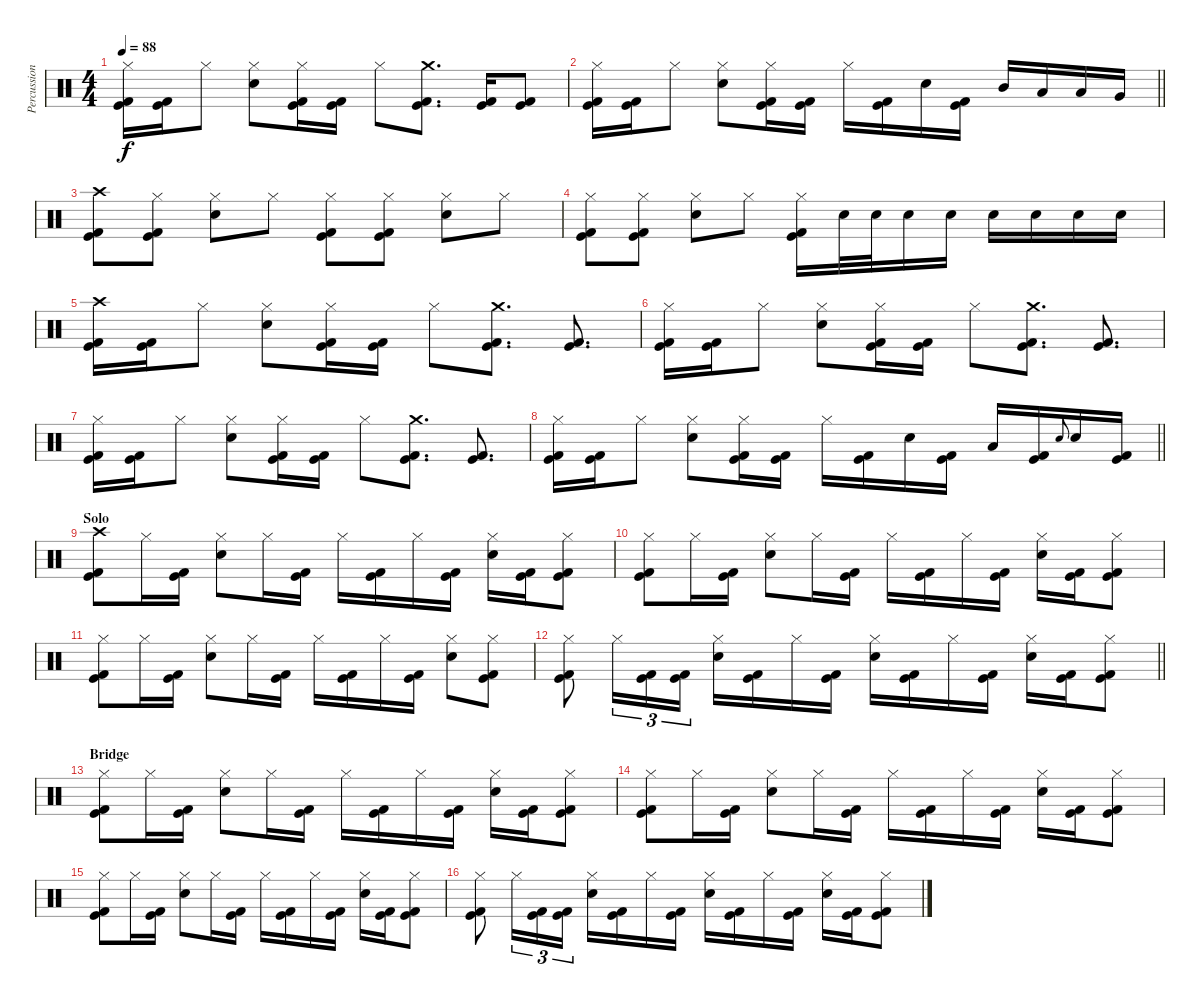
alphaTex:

\track ("Percussion" "Percussion") {instrument percussion}
\staff {score}
\articulation defaults
\ts (4 4)
\tempo 88
\clef neutral
\ks c
("Hi-Hat (closed)" "Kick (hit)" "Kick (hit) 2").16{dy f} ("Kick (hit)" "Kick (hit) 2").16 "Hi-Hat (closed)".8 ("Hi-Hat (closed)" "Electric Snare (hit)").8 ("Hi-Hat (closed)" "Kick (hit)" "Kick (hit) 2").16 ("Kick (hit)" "Kick (hit) 2").16 "Hi-Hat (closed)".8 ("Crash medium (hit)" "Kick (hit)" "Kick (hit) 2").8{d} ("Kick (hit)" "Kick (hit) 2").16 ("Kick (hit)" "Kick (hit) 2").8 |
\barLineRight lightlight
("Hi-Hat (closed)" "Kick (hit)" "Kick (hit) 2").16 ("Kick (hit)" "Kick (hit) 2").16 "Hi-Hat (closed)".8 ("Hi-Hat (closed)" "Electric Snare (hit)").8 ("Hi-Hat (closed)" "Kick (hit)" "Kick (hit) 2").16 ("Kick (hit)" "Kick (hit) 2").16 "Hi-Hat (closed)".16 ("Kick (hit)" "Kick (hit) 2").16 "Electric Snare (hit)".16 ("Kick (hit)" "Kick (hit) 2").16 "Mid Tom (hit)".16 "Low Tom (hit)".16 "Low Tom (hit)".16 "Very Low Tom (hit)".16 |
\section ("" "")
("Crash high (hit)" "Kick (hit)" "Kick (hit) 2").8 ("Hi-Hat (closed)" "Kick (hit)" "Kick (hit) 2").8 ("Hi-Hat (closed)" "Electric Snare (hit)").8 "Hi-Hat (closed)".8 ("Hi-Hat (closed)" "Kick (hit)" "Kick (hit) 2").8 ("Hi-Hat (closed)" "Kick (hit)" "Kick (hit) 2").8 ("Hi-Hat (closed)" "Electric Snare (hit)").8 "Hi-Hat (closed)".8 |
("Hi-Hat (closed)" "Kick (hit)" "Kick (hit) 2").8 ("Hi-Hat (closed)" "Kick (hit)" "Kick (hit) 2").8 ("Hi-Hat (closed)" "Electric Snare (hit)").8 "Hi-Hat (closed)".8 ("Hi-Hat (closed)" "Kick (hit)" "Kick (hit) 2").16 "Electric Snare (hit)".32 "Electric Snare (hit)".32 "Electric Snare (hit)".16 "Electric Snare (hit)".16 "Electric Snare (hit)".16 "Electric Snare (hit)".16 "Electric Snare (hit)".16 "Electric Snare (hit)".16 |
("Crash high (hit)" "Kick (hit)" "Kick (hit) 2").16 ("Kick (hit)" "Kick (hit) 2").16 "Hi-Hat (closed)".8 ("Hi-Hat (closed)" "Electric Snare (hit)").8 ("Hi-Hat (closed)" "Kick (hit)" "Kick (hit) 2").16 ("Kick (hit)" "Kick (hit) 2").16 "Hi-Hat (closed)".8 ("Crash medium (hit)" "Kick (hit)" "Kick (hit) 2").8{d} ("Kick (hit)" "Kick (hit) 2").8{d} |
("Hi-Hat (closed)" "Kick (hit)" "Kick (hit) 2").16 ("Kick (hit)" "Kick (hit) 2").16 "Hi-Hat (closed)".8 ("Hi-Hat (closed)" "Electric Snare (hit)").8 ("Hi-Hat (closed)" "Kick (hit)" "Kick (hit) 2").16 ("Kick (hit)" "Kick (hit) 2").16 "Hi-Hat (closed)".8 ("Crash medium (hit)" "Kick (hit)" "Kick (hit) 2").8{d} ("Kick (hit)" "Kick (hit) 2").8{d} |
("Hi-Hat (closed)" "Kick (hit)" "Kick (hit) 2").16 ("Kick (hit)" "Kick (hit) 2").16 "Hi-Hat (closed)".8 ("Hi-Hat (closed)" "Electric Snare (hit)").8 ("Hi-Hat (closed)" "Kick (hit)" "Kick (hit) 2").16 ("Kick (hit)" "Kick (hit) 2").16 "Hi-Hat (closed)".8 ("Crash medium (hit)" "Kick (hit)" "Kick (hit) 2").8{d} ("Kick (hit)" "Kick (hit) 2").8{d} |
\barLineRight lightlight
("Hi-Hat (closed)" "Kick (hit)" "Kick (hit) 2").16 ("Kick (hit)" "Kick (hit) 2").16 "Hi-Hat (closed)".8 ("Hi-Hat (closed)" "Electric Snare (hit)").8 ("Hi-Hat (closed)" "Kick (hit)" "Kick (hit) 2").16 ("Kick (hit)" "Kick (hit) 2").16 "Hi-Hat (closed)".16 ("Kick (hit)" "Kick (hit) 2").16 "Electric Snare (hit)".16 ("Kick (hit)" "Kick (hit) 2").16 "Low Tom (hit)".16 ("Kick (hit)" "Kick (hit) 2").16 "Electric Snare (hit)".8{gr onbeat} "Electric Snare (hit)".16 ("Kick (hit)" "Kick (hit) 2").16 |
\section ("" "Solo")
("Crash high (hit)" "Kick (hit)" "Kick (hit) 2").8 "Hi-Hat (closed)".16 ("Kick (hit)" "Kick (hit) 2").16 ("Hi-Hat (closed)" "Electric Snare (hit)").8 "Hi-Hat (closed)".16 ("Kick (hit)" "Kick (hit) 2").16 "Hi-Hat (closed)".16 ("Kick (hit)" "Kick (hit) 2").16 "Hi-Hat (closed)".16 ("Kick (hit)" "Kick (hit) 2").16 ("Hi-Hat (closed)" "Electric Snare (hit)").16 ("Kick (hit)" "Kick (hit) 2").16 ("Hi-Hat (closed)" "Kick (hit)" "Kick (hit) 2").8 |
("Hi-Hat (closed)" "Kick (hit)" "Kick (hit) 2").8 "Hi-Hat (closed)".16 ("Kick (hit)" "Kick (hit) 2").16 ("Hi-Hat (closed)" "Electric Snare (hit)").8 "Hi-Hat (closed)".16 ("Kick (hit)" "Kick (hit) 2").16 "Hi-Hat (closed)".16 ("Kick (hit)" "Kick (hit) 2").16 "Hi-Hat (closed)".16 ("Kick (hit)" "Kick (hit) 2").16 ("Hi-Hat (closed)" "Electric Snare (hit)").16 ("Kick (hit)" "Kick (hit) 2").16 ("Hi-Hat (closed)" "Kick (hit)" "Kick (hit) 2").8 |
("Hi-Hat (closed)" "Kick (hit)" "Kick (hit) 2").8 "Hi-Hat (closed)".16 ("Kick (hit)" "Kick (hit) 2").16 ("Hi-Hat (closed)" "Electric Snare (hit)").8 "Hi-Hat (closed)".16 ("Kick (hit)" "Kick (hit) 2").16 "Hi-Hat (closed)".16 ("Kick (hit)" "Kick (hit) 2").16 "Hi-Hat (closed)".16 ("Kick (hit)" "Kick (hit) 2").16 ("Hi-Hat (closed)" "Electric Snare (hit)").8 ("Hi-Hat (closed)" "Kick (hit)" "Kick (hit) 2").8 |
\barLineRight lightlight
("Hi-Hat (closed)" "Kick (hit)" "Kick (hit) 2").8 "Hi-Hat (closed)".16{tu (3 2)} ("Kick (hit)" "Kick (hit) 2").16{tu (3 2)} ("Kick (hit)" "Kick (hit) 2").16{tu (3 2)} ("Hi-Hat (closed)" "Electric Snare (hit)").16 ("Kick (hit)" "Kick (hit) 2").16 "Hi-Hat (closed)".16 ("Kick (hit)" "Kick (hit) 2").16 ("Hi-Hat (closed)" "Electric Snare (hit)").16 ("Kick (hit)" "Kick (hit) 2").16 "Hi-Hat (closed)".16 ("Kick (hit)" "Kick (hit) 2").16 ("Hi-Hat (closed)" "Electric Snare (hit)").16 ("Kick (hit)" "Kick (hit) 2").16 ("Hi-Hat (closed)" "Kick (hit)" "Kick (hit) 2").8 |
\section ("" "Bridge")
("Hi-Hat (closed)" "Kick (hit)" "Kick (hit) 2").8 "Hi-Hat (closed)".16 ("Kick (hit)" "Kick (hit) 2").16 ("Hi-Hat (closed)" "Electric Snare (hit)").8 "Hi-Hat (closed)".16 ("Kick (hit)" "Kick (hit) 2").16 "Hi-Hat (closed)".16 ("Kick (hit)" "Kick (hit) 2").16 "Hi-Hat (closed)".16 ("Kick (hit)" "Kick (hit) 2").16 ("Hi-Hat (closed)" "Electric Snare (hit)").16 ("Kick (hit)" "Kick (hit) 2").16 ("Hi-Hat (closed)" "Kick (hit)" "Kick (hit) 2").8 |
("Hi-Hat (closed)" "Kick (hit)" "Kick (hit) 2").8 "Hi-Hat (closed)".16 ("Kick (hit)" "Kick (hit) 2").16 ("Hi-Hat (closed)" "Electric Snare (hit)").8 "Hi-Hat (closed)".16 ("Kick (hit)" "Kick (hit) 2").16 "Hi-Hat (closed)".16 ("Kick (hit)" "Kick (hit) 2").16 "Hi-Hat (closed)".16 ("Kick (hit)" "Kick (hit) 2").16 ("Hi-Hat (closed)" "Electric Snare (hit)").16 ("Kick (hit)" "Kick (hit) 2").16 ("Hi-Hat (closed)" "Kick (hit)" "Kick (hit) 2").8 |
("Hi-Hat (closed)" "Kick (hit)" "Kick (hit) 2").8 "Hi-Hat (closed)".16 ("Kick (hit)" "Kick (hit) 2").16 ("Hi-Hat (closed)" "Electric Snare (hit)").8 "Hi-Hat (closed)".16 ("Kick (hit)" "Kick (hit) 2").16 "Hi-Hat (closed)".16 ("Kick (hit)" "Kick (hit) 2").16 "Hi-Hat (closed)".16 ("Kick (hit)" "Kick (hit) 2").16 ("Hi-Hat (closed)" "Electric Snare (hit)").16 ("Kick (hit)" "Kick (hit) 2").16 ("Hi-Hat (closed)" "Kick (hit)" "Kick (hit) 2").8 |
("Hi-Hat (closed)" "Kick (hit)" "Kick (hit) 2").8 "Hi-Hat (closed)".16{tu (3 2)} ("Kick (hit)" "Kick (hit) 2").16{tu (3 2)} ("Kick (hit)" "Kick (hit) 2").16{tu (3 2)} ("Hi-Hat (closed)" "Electric Snare (hit)").16 ("Kick (hit)" "Kick (hit) 2").16 "Hi-Hat (closed)".16 ("Kick (hit)" "Kick (hit) 2").16 ("Hi-Hat (closed)" "Electric Snare (hit)").16 ("Kick (hit)" "Kick (hit) 2").16 "Hi-Hat (closed)".16 ("Kick (hit)" "Kick (hit) 2").16 ("Hi-Hat (closed)" "Electric Snare (hit)").16 ("Kick (hit)" "Kick (hit) 2").16 ("Hi-Hat (closed)" "Kick (hit)" "Kick (hit) 2").8
